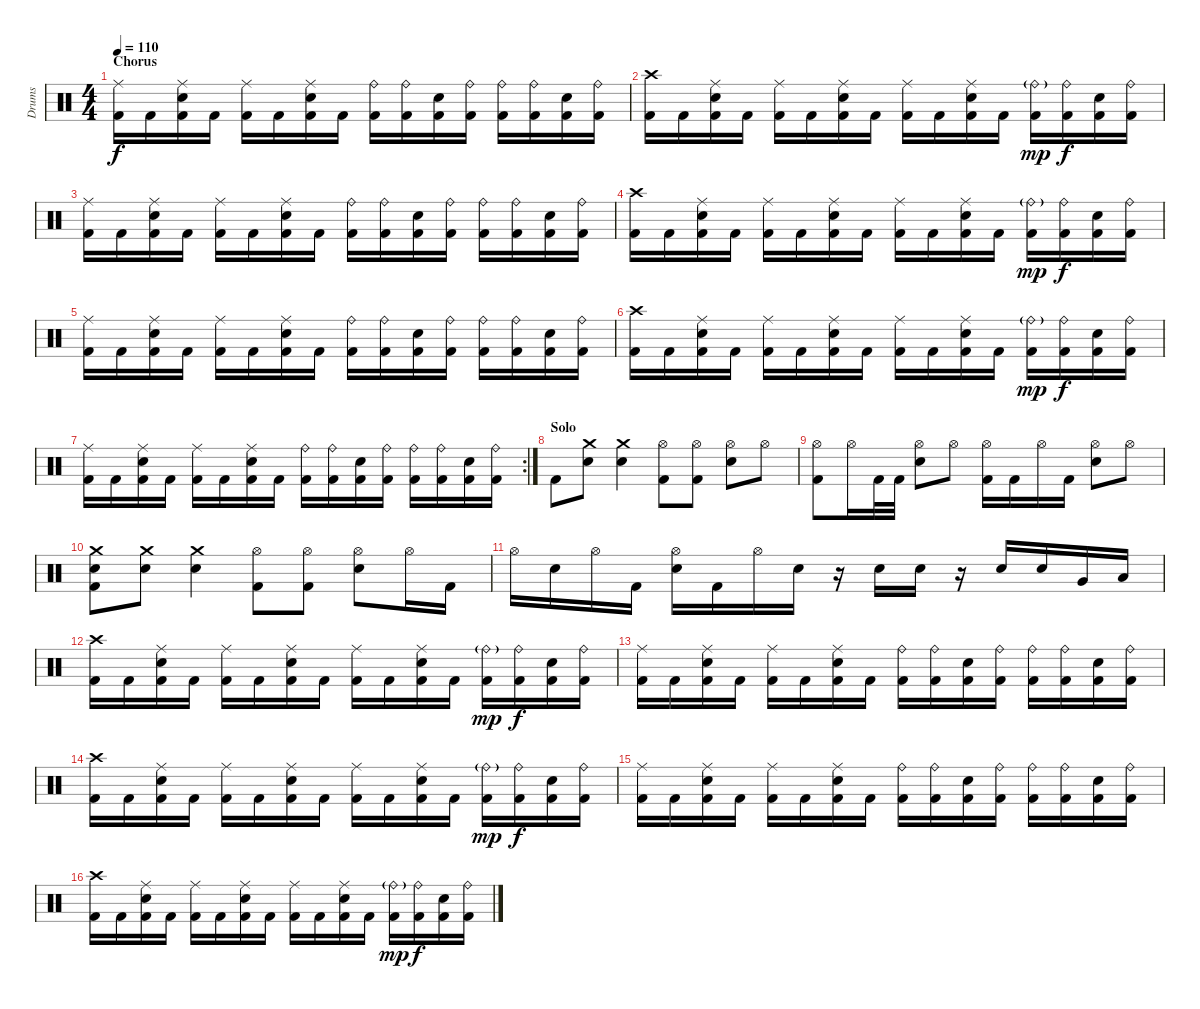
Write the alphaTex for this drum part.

\track ("Drums" "Drums") {instrument percussion}
\staff {score}
\articulation defaults
\ts (4 4)
\section ("" "Chorus")
\tempo 110
\clef neutral
\ks c
("Ride (middle)" "Kick (hit) 2").16{dy f} "Kick (hit) 2".16 ("Ride (middle)" "Snare (hit) 2" "Kick (hit) 2").16 "Kick (hit) 2".16 ("Ride (middle)" "Kick (hit) 2").16 "Kick (hit) 2".16 ("Ride (middle)" "Snare (hit) 2" "Kick (hit) 2").16 "Kick (hit) 2".16 ("Ride (bell)" "Kick (hit) 2").16 ("Ride (bell)" "Kick (hit) 2").16 ("Snare (hit) 2" "Kick (hit) 2").16 ("Ride (bell)" "Kick (hit) 2").16 ("Ride (bell)" "Kick (hit) 2").16 ("Ride (bell)" "Kick (hit) 2").16 ("Snare (hit) 2" "Kick (hit) 2").16 ("Ride (bell)" "Kick (hit) 2").16 |
("Crash high (hit)" "Kick (hit) 2").16 "Kick (hit) 2".16 ("Ride (middle)" "Snare (hit) 2" "Kick (hit) 2").16 "Kick (hit) 2".16 ("Ride (middle)" "Kick (hit) 2").16 "Kick (hit) 2".16 ("Ride (middle)" "Snare (hit) 2" "Kick (hit) 2").16 "Kick (hit) 2".16 ("Ride (middle)" "Kick (hit) 2").16 "Kick (hit) 2".16 ("Ride (middle)" "Snare (hit) 2" "Kick (hit) 2").16 "Kick (hit) 2".16 ("Ride (bell)"{g} "Kick (hit) 2").16{dy mp} ("Ride (bell)" "Kick (hit) 2").16{dy f} ("Snare (hit) 2" "Kick (hit) 2").16 ("Ride (bell)" "Kick (hit) 2").16 |
("Ride (middle)" "Kick (hit) 2").16 "Kick (hit) 2".16 ("Ride (middle)" "Snare (hit) 2" "Kick (hit) 2").16 "Kick (hit) 2".16 ("Ride (middle)" "Kick (hit) 2").16 "Kick (hit) 2".16 ("Ride (middle)" "Snare (hit) 2" "Kick (hit) 2").16 "Kick (hit) 2".16 ("Ride (bell)" "Kick (hit) 2").16 ("Ride (bell)" "Kick (hit) 2").16 ("Snare (hit) 2" "Kick (hit) 2").16 ("Ride (bell)" "Kick (hit) 2").16 ("Ride (bell)" "Kick (hit) 2").16 ("Ride (bell)" "Kick (hit) 2").16 ("Snare (hit) 2" "Kick (hit) 2").16 ("Ride (bell)" "Kick (hit) 2").16 |
("Crash high (hit)" "Kick (hit) 2").16 "Kick (hit) 2".16 ("Ride (middle)" "Snare (hit) 2" "Kick (hit) 2").16 "Kick (hit) 2".16 ("Ride (middle)" "Kick (hit) 2").16 "Kick (hit) 2".16 ("Ride (middle)" "Snare (hit) 2" "Kick (hit) 2").16 "Kick (hit) 2".16 ("Ride (middle)" "Kick (hit) 2").16 "Kick (hit) 2".16 ("Ride (middle)" "Snare (hit) 2" "Kick (hit) 2").16 "Kick (hit) 2".16 ("Ride (bell)"{g} "Kick (hit) 2").16{dy mp} ("Ride (bell)" "Kick (hit) 2").16{dy f} ("Snare (hit) 2" "Kick (hit) 2").16 ("Ride (bell)" "Kick (hit) 2").16 |
("Ride (middle)" "Kick (hit) 2").16 "Kick (hit) 2".16 ("Ride (middle)" "Snare (hit) 2" "Kick (hit) 2").16 "Kick (hit) 2".16 ("Ride (middle)" "Kick (hit) 2").16 "Kick (hit) 2".16 ("Ride (middle)" "Snare (hit) 2" "Kick (hit) 2").16 "Kick (hit) 2".16 ("Ride (bell)" "Kick (hit) 2").16 ("Ride (bell)" "Kick (hit) 2").16 ("Snare (hit) 2" "Kick (hit) 2").16 ("Ride (bell)" "Kick (hit) 2").16 ("Ride (bell)" "Kick (hit) 2").16 ("Ride (bell)" "Kick (hit) 2").16 ("Snare (hit) 2" "Kick (hit) 2").16 ("Ride (bell)" "Kick (hit) 2").16 |
("Crash high (hit)" "Kick (hit) 2").16 "Kick (hit) 2".16 ("Ride (middle)" "Snare (hit) 2" "Kick (hit) 2").16 "Kick (hit) 2".16 ("Ride (middle)" "Kick (hit) 2").16 "Kick (hit) 2".16 ("Ride (middle)" "Snare (hit) 2" "Kick (hit) 2").16 "Kick (hit) 2".16 ("Ride (middle)" "Kick (hit) 2").16 "Kick (hit) 2".16 ("Ride (middle)" "Snare (hit) 2" "Kick (hit) 2").16 "Kick (hit) 2".16 ("Ride (bell)"{g} "Kick (hit) 2").16{dy mp} ("Ride (bell)" "Kick (hit) 2").16{dy f} ("Snare (hit) 2" "Kick (hit) 2").16 ("Ride (bell)" "Kick (hit) 2").16 |
\rc 2
("Ride (middle)" "Kick (hit) 2").16 "Kick (hit) 2".16 ("Ride (middle)" "Snare (hit) 2" "Kick (hit) 2").16 "Kick (hit) 2".16 ("Ride (middle)" "Kick (hit) 2").16 "Kick (hit) 2".16 ("Ride (middle)" "Snare (hit) 2" "Kick (hit) 2").16 "Kick (hit) 2".16 ("Ride (bell)" "Kick (hit) 2").16 ("Ride (bell)" "Kick (hit) 2").16 ("Snare (hit) 2" "Kick (hit) 2").16 ("Ride (bell)" "Kick (hit) 2").16 ("Ride (bell)" "Kick (hit) 2").16 ("Ride (bell)" "Kick (hit) 2").16 ("Snare (hit) 2" "Kick (hit) 2").16 ("Ride (bell)" "Kick (hit) 2").16 |
\section ("" "Solo")
"Kick (hit) 2".8 ("Crash medium (hit)" "Snare (hit) 2").8 ("Crash medium (hit)" "Snare (hit) 2").4 ("Hi-Hat (open)" "Kick (hit) 2").8 ("Hi-Hat (open)" "Kick (hit) 2").8 ("Hi-Hat (open)" "Snare (hit) 2").8 "Hi-Hat (open)".8 |
("Hi-Hat (open)" "Kick (hit) 2").8 "Hi-Hat (open)".16 "Kick (hit) 2".32 "Kick (hit) 2".32 ("Hi-Hat (open)" "Snare (hit) 2").8 "Hi-Hat (open)".8 ("Hi-Hat (open)" "Kick (hit) 2").16 "Kick (hit) 2".16 "Hi-Hat (open)".16 "Kick (hit) 2".16 ("Hi-Hat (open)" "Snare (hit) 2").8 "Hi-Hat (open)".8 |
("Crash medium (hit)" "Snare (hit) 2" "Kick (hit) 2").8 ("Crash medium (hit)" "Snare (hit) 2").8 ("Crash medium (hit)" "Snare (hit) 2").4 ("Hi-Hat (open)" "Kick (hit) 2").8 ("Hi-Hat (open)" "Kick (hit) 2").8 ("Hi-Hat (open)" "Snare (hit) 2").8 "Hi-Hat (open)".16 "Kick (hit) 2".16 |
"Hi-Hat (open)".16 "Snare (hit) 2".16 "Hi-Hat (open)".16 "Kick (hit) 2".16 ("Hi-Hat (open)" "Snare (hit) 2").16 "Kick (hit) 2".16 "Hi-Hat (open)".16 "Snare (hit) 2".16 r.16 "Snare (hit) 2".16 "Snare (hit) 2".16 r.16 "Snare (hit) 2".16 "Snare (hit) 2".16 "Very Low Tom (hit)".16 "Low Floor Tom (hit)".16 |
("Crash high (hit)" "Kick (hit) 2").16 "Kick (hit) 2".16 ("Ride (middle)" "Snare (hit) 2" "Kick (hit) 2").16 "Kick (hit) 2".16 ("Ride (middle)" "Kick (hit) 2").16 "Kick (hit) 2".16 ("Ride (middle)" "Snare (hit) 2" "Kick (hit) 2").16 "Kick (hit) 2".16 ("Ride (middle)" "Kick (hit) 2").16 "Kick (hit) 2".16 ("Ride (middle)" "Snare (hit) 2" "Kick (hit) 2").16 "Kick (hit) 2".16 ("Ride (bell)"{g} "Kick (hit) 2").16{dy mp} ("Ride (bell)" "Kick (hit) 2").16{dy f} ("Snare (hit) 2" "Kick (hit) 2").16 ("Ride (bell)" "Kick (hit) 2").16 |
("Ride (middle)" "Kick (hit) 2").16 "Kick (hit) 2".16 ("Ride (middle)" "Snare (hit) 2" "Kick (hit) 2").16 "Kick (hit) 2".16 ("Ride (middle)" "Kick (hit) 2").16 "Kick (hit) 2".16 ("Ride (middle)" "Snare (hit) 2" "Kick (hit) 2").16 "Kick (hit) 2".16 ("Ride (bell)" "Kick (hit) 2").16 ("Ride (bell)" "Kick (hit) 2").16 ("Snare (hit) 2" "Kick (hit) 2").16 ("Ride (bell)" "Kick (hit) 2").16 ("Ride (bell)" "Kick (hit) 2").16 ("Ride (bell)" "Kick (hit) 2").16 ("Snare (hit) 2" "Kick (hit) 2").16 ("Ride (bell)" "Kick (hit) 2").16 |
("Crash high (hit)" "Kick (hit) 2").16 "Kick (hit) 2".16 ("Ride (middle)" "Snare (hit) 2" "Kick (hit) 2").16 "Kick (hit) 2".16 ("Ride (middle)" "Kick (hit) 2").16 "Kick (hit) 2".16 ("Ride (middle)" "Snare (hit) 2" "Kick (hit) 2").16 "Kick (hit) 2".16 ("Ride (middle)" "Kick (hit) 2").16 "Kick (hit) 2".16 ("Ride (middle)" "Snare (hit) 2" "Kick (hit) 2").16 "Kick (hit) 2".16 ("Ride (bell)"{g} "Kick (hit) 2").16{dy mp} ("Ride (bell)" "Kick (hit) 2").16{dy f} ("Snare (hit) 2" "Kick (hit) 2").16 ("Ride (bell)" "Kick (hit) 2").16 |
("Ride (middle)" "Kick (hit) 2").16 "Kick (hit) 2".16 ("Ride (middle)" "Snare (hit) 2" "Kick (hit) 2").16 "Kick (hit) 2".16 ("Ride (middle)" "Kick (hit) 2").16 "Kick (hit) 2".16 ("Ride (middle)" "Snare (hit) 2" "Kick (hit) 2").16 "Kick (hit) 2".16 ("Ride (bell)" "Kick (hit) 2").16 ("Ride (bell)" "Kick (hit) 2").16 ("Snare (hit) 2" "Kick (hit) 2").16 ("Ride (bell)" "Kick (hit) 2").16 ("Ride (bell)" "Kick (hit) 2").16 ("Ride (bell)" "Kick (hit) 2").16 ("Snare (hit) 2" "Kick (hit) 2").16 ("Ride (bell)" "Kick (hit) 2").16 |
("Crash high (hit)" "Kick (hit) 2").16 "Kick (hit) 2".16 ("Ride (middle)" "Snare (hit) 2" "Kick (hit) 2").16 "Kick (hit) 2".16 ("Ride (middle)" "Kick (hit) 2").16 "Kick (hit) 2".16 ("Ride (middle)" "Snare (hit) 2" "Kick (hit) 2").16 "Kick (hit) 2".16 ("Ride (middle)" "Kick (hit) 2").16 "Kick (hit) 2".16 ("Ride (middle)" "Snare (hit) 2" "Kick (hit) 2").16 "Kick (hit) 2".16 ("Ride (bell)"{g} "Kick (hit) 2").16{dy mp} ("Ride (bell)" "Kick (hit) 2").16{dy f} ("Snare (hit) 2" "Kick (hit) 2").16 ("Ride (bell)" "Kick (hit) 2").16
